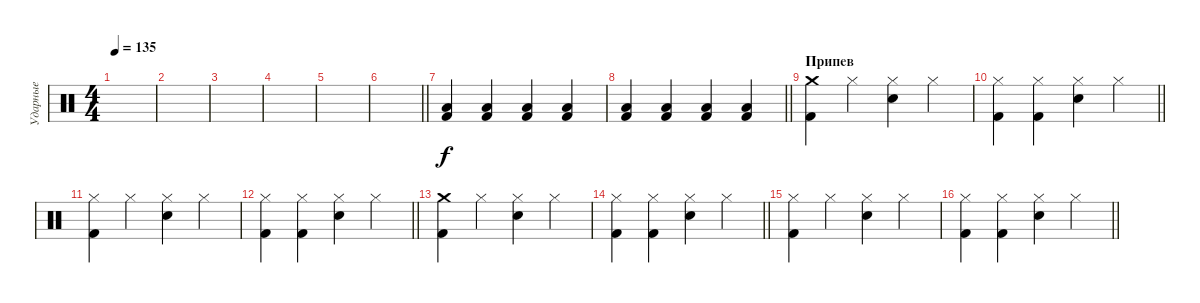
\track ("Ударные" "Ударные") {instrument percussion}
\staff {score}
\articulation defaults
\ts (4 4)
\tempo 135
\clef neutral
\ks c
|
|
|
|
|
\barLineRight lightlight
|
("Low Tom (hit)" "Kick (hit) 2").4 ("Low Tom (hit)" "Kick (hit) 2").4 ("Low Tom (hit)" "Kick (hit) 2").4 ("Low Tom (hit)" "Kick (hit) 2").4 |
\barLineRight lightlight
("Low Tom (hit)" "Kick (hit) 2").4 ("Low Tom (hit)" "Kick (hit) 2").4 ("Low Tom (hit)" "Kick (hit) 2").4 ("Low Tom (hit)" "Kick (hit) 2").4 |
\section ("" "Припев")
("Crash medium (hit)" "Kick (hit) 2").4 "Hi-Hat (closed)".4 ("Hi-Hat (closed)" "Electric Snare (hit)").4 "Hi-Hat (closed)".4 |
\barLineRight lightlight
("Hi-Hat (closed)" "Kick (hit) 2").4 ("Hi-Hat (closed)" "Kick (hit) 2").4 ("Hi-Hat (closed)" "Electric Snare (hit)").4 "Hi-Hat (closed)".4 |
("Hi-Hat (closed)" "Kick (hit) 2").4 "Hi-Hat (closed)".4 ("Hi-Hat (closed)" "Electric Snare (hit)").4 "Hi-Hat (closed)".4 |
\barLineRight lightlight
("Hi-Hat (closed)" "Kick (hit) 2").4 ("Hi-Hat (closed)" "Kick (hit) 2").4 ("Hi-Hat (closed)" "Electric Snare (hit)").4 "Hi-Hat (closed)".4 |
("Crash medium (hit)" "Kick (hit) 2").4 "Hi-Hat (closed)".4 ("Hi-Hat (closed)" "Electric Snare (hit)").4 "Hi-Hat (closed)".4 |
\barLineRight lightlight
("Hi-Hat (closed)" "Kick (hit) 2").4 ("Hi-Hat (closed)" "Kick (hit) 2").4 ("Hi-Hat (closed)" "Electric Snare (hit)").4 "Hi-Hat (closed)".4 |
("Hi-Hat (closed)" "Kick (hit) 2").4 "Hi-Hat (closed)".4 ("Hi-Hat (closed)" "Electric Snare (hit)").4 "Hi-Hat (closed)".4 |
\barLineRight lightlight
("Hi-Hat (closed)" "Kick (hit) 2").4 ("Hi-Hat (closed)" "Kick (hit) 2").4 ("Hi-Hat (closed)" "Electric Snare (hit)").4 "Hi-Hat (closed)".4
